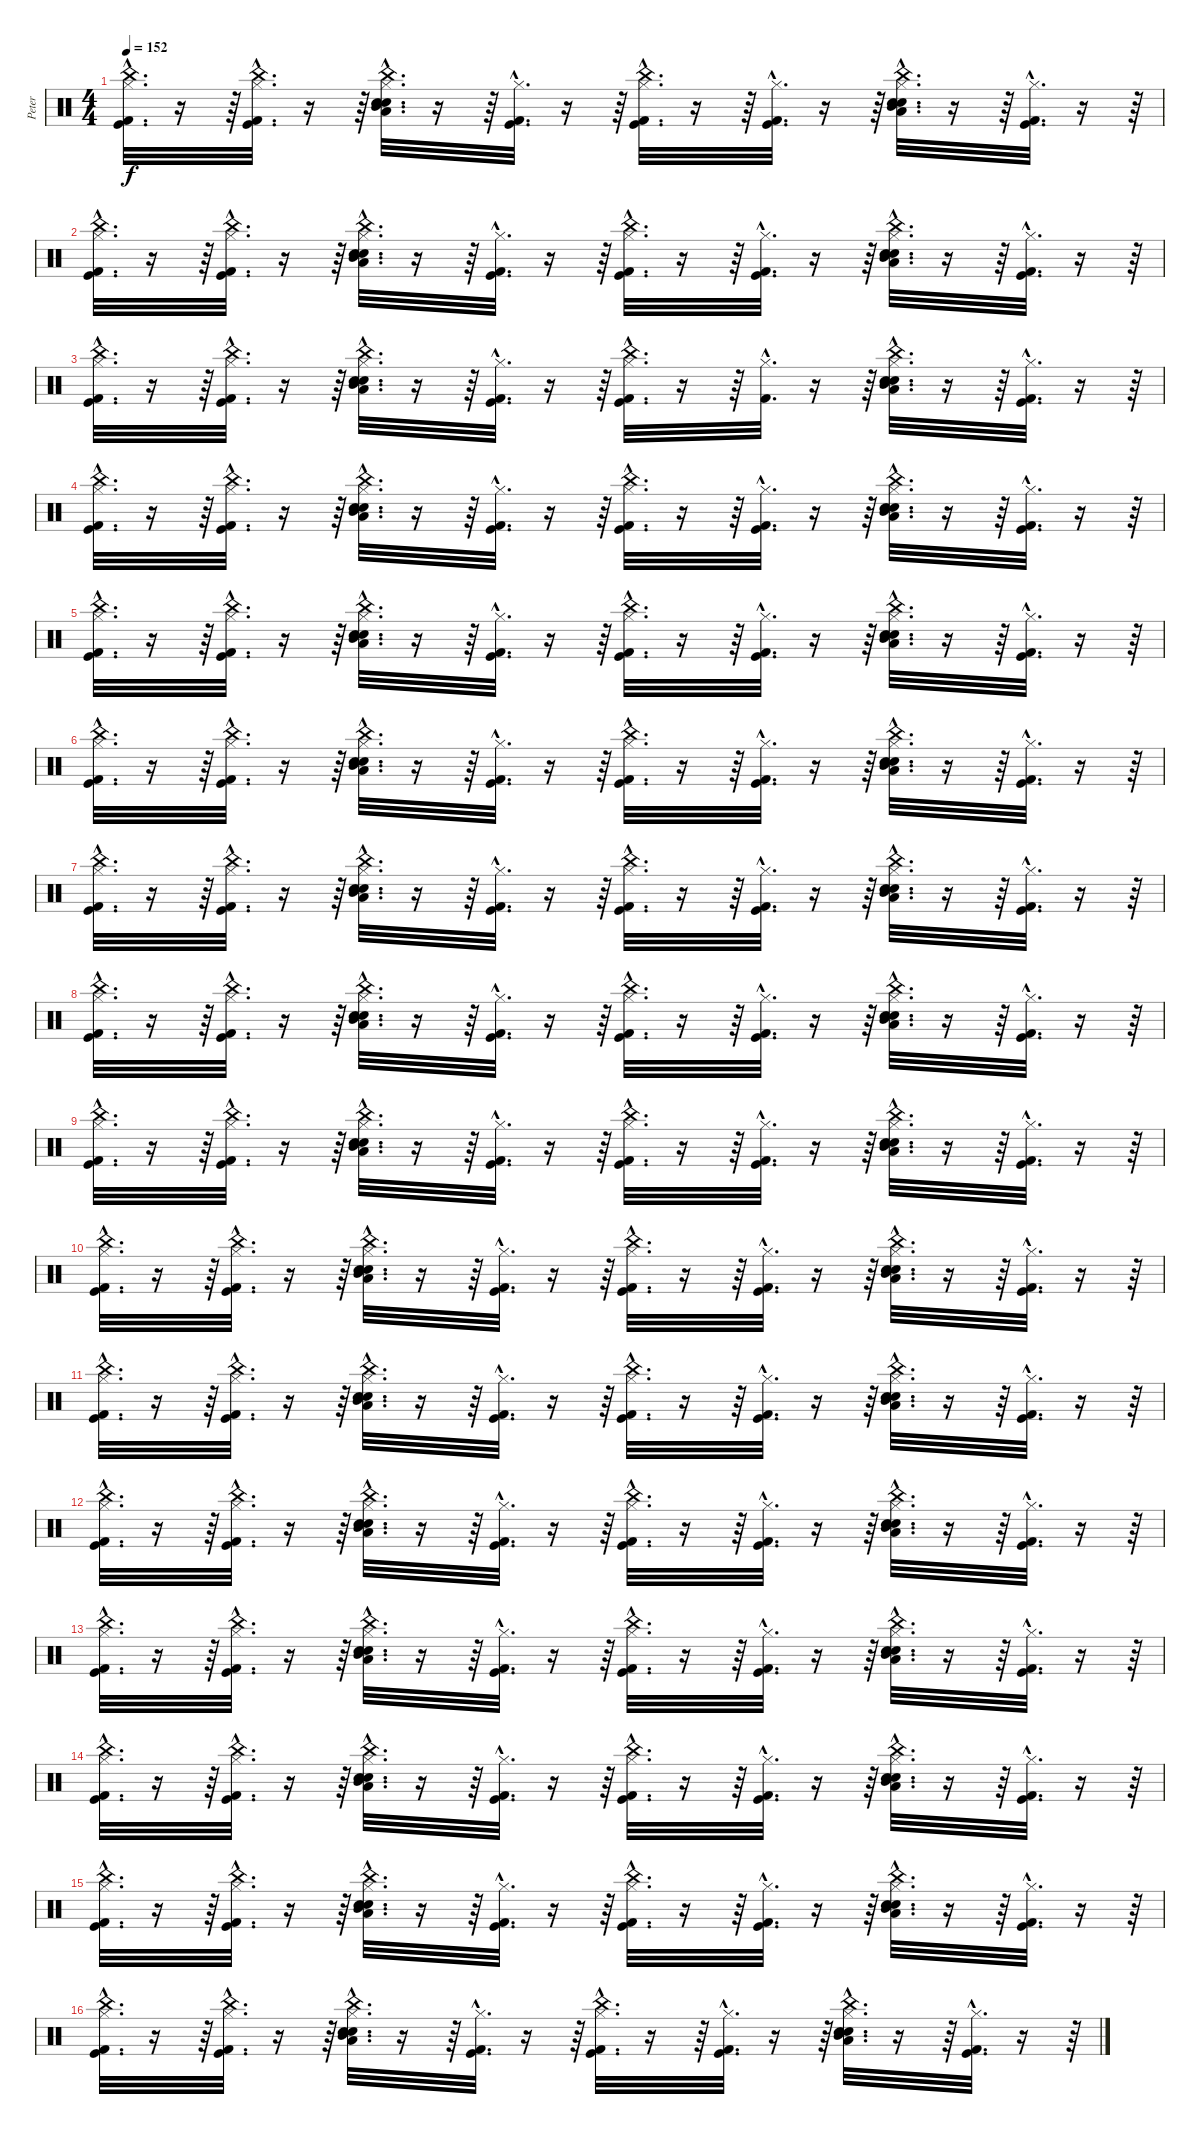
\track ("Peter" "Peter") {instrument percussion}
\staff {score}
\articulation defaults
\ts (4 4)
\tempo 152
\clef neutral
\ks c
("China (hit)"{hac} "Kick (hit) 2"{hac} "Kick (hit)"{hac} "Hi-Hat (closed)"{hac}).32{d dy f} r.16 r.64 ("Kick (hit)"{hac} "Kick (hit) 2"{hac} "China (hit)"{hac} "Hi-Hat (closed)"{hac}).32{d} r.16 r.64 ("China (hit)"{hac} "Electric Snare (hit)"{hac} "Snare (hit) 2"{hac} "Hi-Hat (closed)"{hac} "Mid Tom (hit)"{hac} "Low Tom (hit)"{hac}).32{d} r.16 r.64 ("Kick (hit) 2"{hac} "Kick (hit)"{hac} "Hi-Hat (closed)"{hac}).32{d} r.16 r.64 ("China (hit)"{hac} "Kick (hit)"{hac} "Kick (hit) 2"{hac} "Hi-Hat (closed)"{hac}).32{d} r.16 r.64 ("Kick (hit) 2"{hac} "Kick (hit)"{hac} "Hi-Hat (closed)"{hac}).32{d} r.16 r.64 ("China (hit)"{hac} "Electric Snare (hit)"{hac} "Snare (hit) 2"{hac} "Hi-Hat (closed)"{hac} "Mid Tom (hit)"{hac} "Low Tom (hit)"{hac}).32{d} r.16 r.64 ("Kick (hit) 2"{hac} "Kick (hit)"{hac} "Hi-Hat (closed)"{hac}).32{d} r.16 r.64 |
("China (hit)"{hac} "Kick (hit) 2"{hac} "Kick (hit)"{hac} "Hi-Hat (closed)"{hac}).32{d} r.16 r.64 ("Kick (hit)"{hac} "Kick (hit) 2"{hac} "China (hit)"{hac} "Hi-Hat (closed)"{hac}).32{d} r.16 r.64 ("China (hit)"{hac} "Electric Snare (hit)"{hac} "Snare (hit) 2"{hac} "Hi-Hat (closed)"{hac} "Mid Tom (hit)"{hac} "Low Tom (hit)"{hac}).32{d} r.16 r.64 ("Kick (hit) 2"{hac} "Kick (hit)"{hac} "Hi-Hat (closed)"{hac}).32{d} r.16 r.64 ("China (hit)"{hac} "Kick (hit)"{hac} "Kick (hit) 2"{hac} "Hi-Hat (closed)"{hac}).32{d} r.16 r.64 ("Kick (hit) 2"{hac} "Kick (hit)"{hac} "Hi-Hat (closed)"{hac}).32{d} r.16 r.64 ("China (hit)"{hac} "Electric Snare (hit)"{hac} "Snare (hit) 2"{hac} "Hi-Hat (closed)"{hac} "Mid Tom (hit)"{hac} "Low Tom (hit)"{hac}).32{d} r.16 r.64 ("Kick (hit) 2"{hac} "Kick (hit)"{hac} "Hi-Hat (closed)"{hac}).32{d} r.16 r.64 |
("China (hit)"{hac} "Kick (hit) 2"{hac} "Kick (hit)"{hac} "Hi-Hat (closed)"{hac}).32{d} r.16 r.64 ("Kick (hit) 2"{hac} "China (hit)"{hac} "Hi-Hat (closed)"{hac} "Kick (hit)"{hac}).32{d} r.16 r.64 ("China (hit)"{hac} "Electric Snare (hit)"{hac} "Snare (hit) 2"{hac} "Hi-Hat (closed)"{hac} "Mid Tom (hit)"{hac} "Low Tom (hit)"{hac}).32{d} r.16 r.64 ("Kick (hit) 2"{hac} "Kick (hit)"{hac} "Hi-Hat (closed)"{hac}).32{d} r.16 r.64 ("China (hit)"{hac} "Kick (hit)"{hac} "Kick (hit) 2"{hac} "Hi-Hat (closed)"{hac}).32{d} r.16 r.64 ("Kick (hit) 2"{hac} "Hi-Hat (closed)"{hac}).32{d} r.16 r.64 ("China (hit)"{hac} "Electric Snare (hit)"{hac} "Snare (hit) 2"{hac} "Hi-Hat (closed)"{hac} "Mid Tom (hit)"{hac} "Low Tom (hit)"{hac}).32{d} r.16 r.64 ("Kick (hit) 2"{hac} "Kick (hit)"{hac} "Hi-Hat (closed)"{hac}).32{d} r.16 r.64 |
("China (hit)"{hac} "Kick (hit) 2"{hac} "Kick (hit)"{hac} "Hi-Hat (closed)"{hac}).32{d} r.16 r.64 ("Kick (hit)"{hac} "Kick (hit) 2"{hac} "China (hit)"{hac} "Hi-Hat (closed)"{hac}).32{d} r.16 r.64 ("China (hit)"{hac} "Electric Snare (hit)"{hac} "Snare (hit) 2"{hac} "Hi-Hat (closed)"{hac} "Mid Tom (hit)"{hac} "Low Tom (hit)"{hac}).32{d} r.16 r.64 ("Kick (hit) 2"{hac} "Kick (hit)"{hac} "Hi-Hat (closed)"{hac}).32{d} r.16 r.64 ("China (hit)"{hac} "Kick (hit)"{hac} "Kick (hit) 2"{hac} "Hi-Hat (closed)"{hac}).32{d} r.16 r.64 ("Kick (hit) 2"{hac} "Kick (hit)"{hac} "Hi-Hat (closed)"{hac}).32{d} r.16 r.64 ("China (hit)"{hac} "Electric Snare (hit)"{hac} "Snare (hit) 2"{hac} "Hi-Hat (closed)"{hac} "Mid Tom (hit)"{hac} "Low Tom (hit)"{hac}).32{d} r.16 r.64 ("Kick (hit) 2"{hac} "Kick (hit)"{hac} "Hi-Hat (closed)"{hac}).32{d} r.16 r.64 |
("China (hit)"{hac} "Kick (hit) 2"{hac} "Kick (hit)"{hac} "Hi-Hat (closed)"{hac}).32{d} r.16 r.64 ("Kick (hit)"{hac} "Kick (hit) 2"{hac} "China (hit)"{hac} "Hi-Hat (closed)"{hac}).32{d} r.16 r.64 ("China (hit)"{hac} "Electric Snare (hit)"{hac} "Snare (hit) 2"{hac} "Hi-Hat (closed)"{hac} "Mid Tom (hit)"{hac} "Low Tom (hit)"{hac}).32{d} r.16 r.64 ("Kick (hit) 2"{hac} "Kick (hit)"{hac} "Hi-Hat (closed)"{hac}).32{d} r.16 r.64 ("China (hit)"{hac} "Kick (hit)"{hac} "Kick (hit) 2"{hac} "Hi-Hat (closed)"{hac}).32{d} r.16 r.64 ("Kick (hit) 2"{hac} "Kick (hit)"{hac} "Hi-Hat (closed)"{hac}).32{d} r.16 r.64 ("China (hit)"{hac} "Electric Snare (hit)"{hac} "Snare (hit) 2"{hac} "Hi-Hat (closed)"{hac} "Mid Tom (hit)"{hac} "Low Tom (hit)"{hac}).32{d} r.16 r.64 ("Kick (hit) 2"{hac} "Kick (hit)"{hac} "Hi-Hat (closed)"{hac}).32{d} r.16 r.64 |
("China (hit)"{hac} "Kick (hit) 2"{hac} "Kick (hit)"{hac} "Hi-Hat (closed)"{hac}).32{d} r.16 r.64 ("Kick (hit)"{hac} "Kick (hit) 2"{hac} "China (hit)"{hac} "Hi-Hat (closed)"{hac}).32{d} r.16 r.64 ("China (hit)"{hac} "Electric Snare (hit)"{hac} "Snare (hit) 2"{hac} "Hi-Hat (closed)"{hac} "Mid Tom (hit)"{hac} "Low Tom (hit)"{hac}).32{d} r.16 r.64 ("Kick (hit) 2"{hac} "Kick (hit)"{hac} "Hi-Hat (closed)"{hac}).32{d} r.16 r.64 ("China (hit)"{hac} "Kick (hit)"{hac} "Kick (hit) 2"{hac} "Hi-Hat (closed)"{hac}).32{d} r.16 r.64 ("Kick (hit) 2"{hac} "Kick (hit)"{hac} "Hi-Hat (closed)"{hac}).32{d} r.16 r.64 ("China (hit)"{hac} "Electric Snare (hit)"{hac} "Snare (hit) 2"{hac} "Hi-Hat (closed)"{hac} "Mid Tom (hit)"{hac} "Low Tom (hit)"{hac}).32{d} r.16 r.64 ("Kick (hit) 2"{hac} "Kick (hit)"{hac} "Hi-Hat (closed)"{hac}).32{d} r.16 r.64 |
("China (hit)"{hac} "Kick (hit) 2"{hac} "Kick (hit)"{hac} "Hi-Hat (closed)"{hac}).32{d} r.16 r.64 ("Kick (hit)"{hac} "Kick (hit) 2"{hac} "China (hit)"{hac} "Hi-Hat (closed)"{hac}).32{d} r.16 r.64 ("China (hit)"{hac} "Electric Snare (hit)"{hac} "Snare (hit) 2"{hac} "Hi-Hat (closed)"{hac} "Mid Tom (hit)"{hac} "Low Tom (hit)"{hac}).32{d} r.16 r.64 ("Kick (hit) 2"{hac} "Kick (hit)"{hac} "Hi-Hat (closed)"{hac}).32{d} r.16 r.64 ("China (hit)"{hac} "Kick (hit)"{hac} "Kick (hit) 2"{hac} "Hi-Hat (closed)"{hac}).32{d} r.16 r.64 ("Kick (hit) 2"{hac} "Kick (hit)"{hac} "Hi-Hat (closed)"{hac}).32{d} r.16 r.64 ("China (hit)"{hac} "Electric Snare (hit)"{hac} "Snare (hit) 2"{hac} "Hi-Hat (closed)"{hac} "Mid Tom (hit)"{hac} "Low Tom (hit)"{hac}).32{d} r.16 r.64 ("Kick (hit) 2"{hac} "Kick (hit)"{hac} "Hi-Hat (closed)"{hac}).32{d} r.16 r.64 |
("China (hit)"{hac} "Kick (hit) 2"{hac} "Kick (hit)"{hac} "Hi-Hat (closed)"{hac}).32{d} r.16 r.64 ("Kick (hit)"{hac} "Kick (hit) 2"{hac} "China (hit)"{hac} "Hi-Hat (closed)"{hac}).32{d} r.16 r.64 ("China (hit)"{hac} "Electric Snare (hit)"{hac} "Snare (hit) 2"{hac} "Hi-Hat (closed)"{hac} "Mid Tom (hit)"{hac} "Low Tom (hit)"{hac}).32{d} r.16 r.64 ("Kick (hit) 2"{hac} "Kick (hit)"{hac} "Hi-Hat (closed)"{hac}).32{d} r.16 r.64 ("China (hit)"{hac} "Kick (hit)"{hac} "Kick (hit) 2"{hac} "Hi-Hat (closed)"{hac}).32{d} r.16 r.64 ("Kick (hit) 2"{hac} "Kick (hit)"{hac} "Hi-Hat (closed)"{hac}).32{d} r.16 r.64 ("China (hit)"{hac} "Electric Snare (hit)"{hac} "Snare (hit) 2"{hac} "Hi-Hat (closed)"{hac} "Mid Tom (hit)"{hac} "Low Tom (hit)"{hac}).32{d} r.16 r.64 ("Kick (hit) 2"{hac} "Kick (hit)"{hac} "Hi-Hat (closed)"{hac}).32{d} r.16 r.64 |
("China (hit)"{hac} "Kick (hit) 2"{hac} "Kick (hit)"{hac} "Hi-Hat (closed)"{hac}).32{d} r.16 r.64 ("Kick (hit)"{hac} "Kick (hit) 2"{hac} "China (hit)"{hac} "Hi-Hat (closed)"{hac}).32{d} r.16 r.64 ("China (hit)"{hac} "Electric Snare (hit)"{hac} "Snare (hit) 2"{hac} "Hi-Hat (closed)"{hac} "Mid Tom (hit)"{hac} "Low Tom (hit)"{hac}).32{d} r.16 r.64 ("Kick (hit) 2"{hac} "Kick (hit)"{hac} "Hi-Hat (closed)"{hac}).32{d} r.16 r.64 ("China (hit)"{hac} "Kick (hit)"{hac} "Kick (hit) 2"{hac} "Hi-Hat (closed)"{hac}).32{d} r.16 r.64 ("Kick (hit) 2"{hac} "Kick (hit)"{hac} "Hi-Hat (closed)"{hac}).32{d} r.16 r.64 ("China (hit)"{hac} "Electric Snare (hit)"{hac} "Snare (hit) 2"{hac} "Hi-Hat (closed)"{hac} "Mid Tom (hit)"{hac} "Low Tom (hit)"{hac}).32{d} r.16 r.64 ("Kick (hit) 2"{hac} "Kick (hit)"{hac} "Hi-Hat (closed)"{hac}).32{d} r.16 r.64 |
("China (hit)"{hac} "Kick (hit) 2"{hac} "Kick (hit)"{hac} "Hi-Hat (closed)"{hac}).32{d} r.16 r.64 ("Kick (hit)"{hac} "Kick (hit) 2"{hac} "China (hit)"{hac} "Hi-Hat (closed)"{hac}).32{d} r.16 r.64 ("China (hit)"{hac} "Electric Snare (hit)"{hac} "Snare (hit) 2"{hac} "Hi-Hat (closed)"{hac} "Mid Tom (hit)"{hac} "Low Tom (hit)"{hac}).32{d} r.16 r.64 ("Kick (hit) 2"{hac} "Kick (hit)"{hac} "Hi-Hat (closed)"{hac}).32{d} r.16 r.64 ("China (hit)"{hac} "Kick (hit)"{hac} "Kick (hit) 2"{hac} "Hi-Hat (closed)"{hac}).32{d} r.16 r.64 ("Kick (hit) 2"{hac} "Kick (hit)"{hac} "Hi-Hat (closed)"{hac}).32{d} r.16 r.64 ("China (hit)"{hac} "Electric Snare (hit)"{hac} "Snare (hit) 2"{hac} "Hi-Hat (closed)"{hac} "Mid Tom (hit)"{hac} "Low Tom (hit)"{hac}).32{d} r.16 r.64 ("Kick (hit) 2"{hac} "Kick (hit)"{hac} "Hi-Hat (closed)"{hac}).32{d} r.16 r.64 |
("China (hit)"{hac} "Kick (hit) 2"{hac} "Kick (hit)"{hac} "Hi-Hat (closed)"{hac}).32{d} r.16 r.64 ("Kick (hit)"{hac} "Kick (hit) 2"{hac} "China (hit)"{hac} "Hi-Hat (closed)"{hac}).32{d} r.16 r.64 ("China (hit)"{hac} "Electric Snare (hit)"{hac} "Snare (hit) 2"{hac} "Hi-Hat (closed)"{hac} "Mid Tom (hit)"{hac} "Low Tom (hit)"{hac}).32{d} r.16 r.64 ("Kick (hit) 2"{hac} "Kick (hit)"{hac} "Hi-Hat (closed)"{hac}).32{d} r.16 r.64 ("China (hit)"{hac} "Kick (hit)"{hac} "Kick (hit) 2"{hac} "Hi-Hat (closed)"{hac}).32{d} r.16 r.64 ("Kick (hit) 2"{hac} "Kick (hit)"{hac} "Hi-Hat (closed)"{hac}).32{d} r.16 r.64 ("China (hit)"{hac} "Electric Snare (hit)"{hac} "Snare (hit) 2"{hac} "Hi-Hat (closed)"{hac} "Mid Tom (hit)"{hac} "Low Tom (hit)"{hac}).32{d} r.16 r.64 ("Kick (hit) 2"{hac} "Kick (hit)"{hac} "Hi-Hat (closed)"{hac}).32{d} r.16 r.64 |
("China (hit)"{hac} "Kick (hit) 2"{hac} "Kick (hit)"{hac} "Hi-Hat (closed)"{hac}).32{d} r.16 r.64 ("Kick (hit)"{hac} "Kick (hit) 2"{hac} "China (hit)"{hac} "Hi-Hat (closed)"{hac}).32{d} r.16 r.64 ("China (hit)"{hac} "Electric Snare (hit)"{hac} "Snare (hit) 2"{hac} "Hi-Hat (closed)"{hac} "Mid Tom (hit)"{hac} "Low Tom (hit)"{hac}).32{d} r.16 r.64 ("Kick (hit) 2"{hac} "Kick (hit)"{hac} "Hi-Hat (closed)"{hac}).32{d} r.16 r.64 ("China (hit)"{hac} "Kick (hit)"{hac} "Kick (hit) 2"{hac} "Hi-Hat (closed)"{hac}).32{d} r.16 r.64 ("Kick (hit) 2"{hac} "Kick (hit)"{hac} "Hi-Hat (closed)"{hac}).32{d} r.16 r.64 ("China (hit)"{hac} "Electric Snare (hit)"{hac} "Snare (hit) 2"{hac} "Hi-Hat (closed)"{hac} "Mid Tom (hit)"{hac} "Low Tom (hit)"{hac}).32{d} r.16 r.64 ("Kick (hit) 2"{hac} "Kick (hit)"{hac} "Hi-Hat (closed)"{hac}).32{d} r.16 r.64 |
("China (hit)"{hac} "Kick (hit) 2"{hac} "Kick (hit)"{hac} "Hi-Hat (closed)"{hac}).32{d} r.16 r.64 ("Kick (hit)"{hac} "Kick (hit) 2"{hac} "China (hit)"{hac} "Hi-Hat (closed)"{hac}).32{d} r.16 r.64 ("China (hit)"{hac} "Electric Snare (hit)"{hac} "Snare (hit) 2"{hac} "Hi-Hat (closed)"{hac} "Mid Tom (hit)"{hac} "Low Tom (hit)"{hac}).32{d} r.16 r.64 ("Kick (hit) 2"{hac} "Kick (hit)"{hac} "Hi-Hat (closed)"{hac}).32{d} r.16 r.64 ("China (hit)"{hac} "Kick (hit)"{hac} "Kick (hit) 2"{hac} "Hi-Hat (closed)"{hac}).32{d} r.16 r.64 ("Kick (hit) 2"{hac} "Kick (hit)"{hac} "Hi-Hat (closed)"{hac}).32{d} r.16 r.64 ("China (hit)"{hac} "Electric Snare (hit)"{hac} "Snare (hit) 2"{hac} "Hi-Hat (closed)"{hac} "Mid Tom (hit)"{hac} "Low Tom (hit)"{hac}).32{d} r.16 r.64 ("Kick (hit) 2"{hac} "Kick (hit)"{hac} "Hi-Hat (closed)"{hac}).32{d} r.16 r.64 |
("China (hit)"{hac} "Kick (hit) 2"{hac} "Kick (hit)"{hac} "Hi-Hat (closed)"{hac}).32{d} r.16 r.64 ("Kick (hit)"{hac} "Kick (hit) 2"{hac} "China (hit)"{hac} "Hi-Hat (closed)"{hac}).32{d} r.16 r.64 ("China (hit)"{hac} "Electric Snare (hit)"{hac} "Snare (hit) 2"{hac} "Hi-Hat (closed)"{hac} "Mid Tom (hit)"{hac} "Low Tom (hit)"{hac}).32{d} r.16 r.64 ("Kick (hit) 2"{hac} "Kick (hit)"{hac} "Hi-Hat (closed)"{hac}).32{d} r.16 r.64 ("China (hit)"{hac} "Kick (hit)"{hac} "Kick (hit) 2"{hac} "Hi-Hat (closed)"{hac}).32{d} r.16 r.64 ("Kick (hit) 2"{hac} "Kick (hit)"{hac} "Hi-Hat (closed)"{hac}).32{d} r.16 r.64 ("China (hit)"{hac} "Electric Snare (hit)"{hac} "Snare (hit) 2"{hac} "Hi-Hat (closed)"{hac} "Mid Tom (hit)"{hac} "Low Tom (hit)"{hac}).32{d} r.16 r.64 ("Kick (hit) 2"{hac} "Kick (hit)"{hac} "Hi-Hat (closed)"{hac}).32{d} r.16 r.64 |
("China (hit)"{hac} "Kick (hit) 2"{hac} "Kick (hit)"{hac} "Hi-Hat (closed)"{hac}).32{d} r.16 r.64 ("Kick (hit)"{hac} "Kick (hit) 2"{hac} "China (hit)"{hac} "Hi-Hat (closed)"{hac}).32{d} r.16 r.64 ("China (hit)"{hac} "Electric Snare (hit)"{hac} "Snare (hit) 2"{hac} "Hi-Hat (closed)"{hac} "Mid Tom (hit)"{hac} "Low Tom (hit)"{hac}).32{d} r.16 r.64 ("Kick (hit) 2"{hac} "Kick (hit)"{hac} "Hi-Hat (closed)"{hac}).32{d} r.16 r.64 ("China (hit)"{hac} "Kick (hit)"{hac} "Kick (hit) 2"{hac} "Hi-Hat (closed)"{hac}).32{d} r.16 r.64 ("Kick (hit) 2"{hac} "Kick (hit)"{hac} "Hi-Hat (closed)"{hac}).32{d} r.16 r.64 ("China (hit)"{hac} "Electric Snare (hit)"{hac} "Snare (hit) 2"{hac} "Hi-Hat (closed)"{hac} "Mid Tom (hit)"{hac} "Low Tom (hit)"{hac}).32{d} r.16 r.64 ("Kick (hit) 2"{hac} "Kick (hit)"{hac} "Hi-Hat (closed)"{hac}).32{d} r.16 r.64 |
("China (hit)"{hac} "Kick (hit) 2"{hac} "Kick (hit)"{hac} "Hi-Hat (closed)"{hac}).32{d} r.16 r.64 ("Kick (hit)"{hac} "Kick (hit) 2"{hac} "China (hit)"{hac} "Hi-Hat (closed)"{hac}).32{d} r.16 r.64 ("China (hit)"{hac} "Electric Snare (hit)"{hac} "Snare (hit) 2"{hac} "Hi-Hat (closed)"{hac} "Mid Tom (hit)"{hac} "Low Tom (hit)"{hac}).32{d} r.16 r.64 ("Kick (hit) 2"{hac} "Kick (hit)"{hac} "Hi-Hat (closed)"{hac}).32{d} r.16 r.64 ("China (hit)"{hac} "Kick (hit)"{hac} "Kick (hit) 2"{hac} "Hi-Hat (closed)"{hac}).32{d} r.16 r.64 ("Kick (hit) 2"{hac} "Kick (hit)"{hac} "Hi-Hat (closed)"{hac}).32{d} r.16 r.64 ("China (hit)"{hac} "Electric Snare (hit)"{hac} "Snare (hit) 2"{hac} "Hi-Hat (closed)"{hac} "Mid Tom (hit)"{hac} "Low Tom (hit)"{hac}).32{d} r.16 r.64 ("Kick (hit) 2"{hac} "Kick (hit)"{hac} "Hi-Hat (closed)"{hac}).32{d} r.16 r.64
